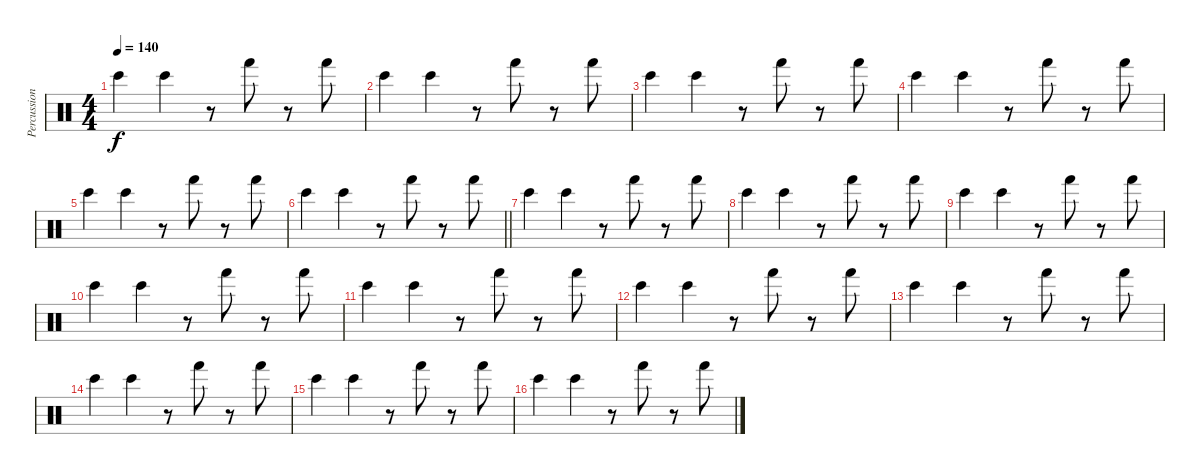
\track ("Percussions" "Percussion") {instrument percussion}
\staff {score}
\articulation defaults
\ts (4 4)
\tempo 140
\clef neutral
\ks c "Bongo High (hit)".4{dy f} "Bongo High (hit)".4
r.8 "Hand (hit)".8 r.8 "Hand (hit)".8 |
"Bongo High (hit)".4 "Bongo High (hit)".4 r.8 "Hand (hit)".8 r.8 "Hand (hit)".8 |
"Bongo High (hit)".4 "Bongo High (hit)".4 r.8 "Hand (hit)".8 r.8 "Hand (hit)".8 |
"Bongo High (hit)".4 "Bongo High (hit)".4 r.8 "Hand (hit)".8 r.8 "Hand (hit)".8 |
"Bongo High (hit)".4 "Bongo High (hit)".4 r.8 "Hand (hit)".8 r.8 "Hand (hit)".8 |
\barLineRight lightlight "Bongo High (hit)".4 "Bongo High (hit)".4
r.8 "Hand (hit)".8 r.8 "Hand (hit)".8 |
"Bongo High (hit)".4 "Bongo High (hit)".4 r.8 "Hand (hit)".8 r.8 "Hand (hit)".8 |
"Bongo High (hit)".4 "Bongo High (hit)".4 r.8 "Hand (hit)".8 r.8 "Hand (hit)".8 |
"Bongo High (hit)".4 "Bongo High (hit)".4 r.8 "Hand (hit)".8 r.8 "Hand (hit)".8 |
"Bongo High (hit)".4 "Bongo High (hit)".4 r.8 "Hand (hit)".8 r.8 "Hand (hit)".8 |
"Bongo High (hit)".4 "Bongo High (hit)".4 r.8 "Hand (hit)".8 r.8 "Hand (hit)".8 |
"Bongo High (hit)".4 "Bongo High (hit)".4 r.8 "Hand (hit)".8 r.8 "Hand (hit)".8 |
"Bongo High (hit)".4 "Bongo High (hit)".4 r.8 "Hand (hit)".8 r.8 "Hand (hit)".8 |
"Bongo High (hit)".4 "Bongo High (hit)".4 r.8 "Hand (hit)".8 r.8 "Hand (hit)".8 |
"Bongo High (hit)".4 "Bongo High (hit)".4 r.8 "Hand (hit)".8 r.8 "Hand (hit)".8 |
"Bongo High (hit)".4 "Bongo High (hit)".4 r.8 "Hand (hit)".8 r.8 "Hand (hit)".8
